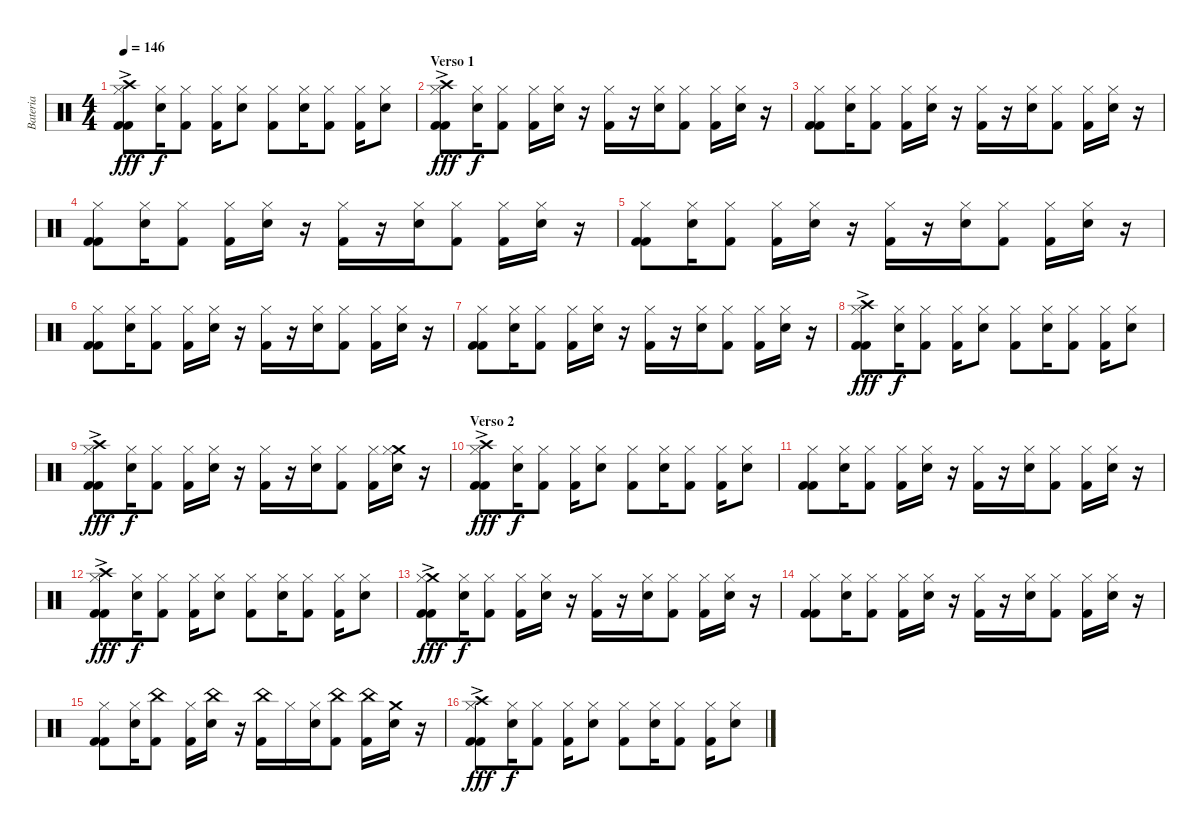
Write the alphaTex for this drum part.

\track ("Bateria" "Bateria") {instrument percussion}
\staff {score}
\articulation defaults
\ts (4 4)
\tempo 146
\clef neutral
\ks c
("Crash high (hit)"{ac} "Hi-Hat (closed)" "Kick (hit) 2" "Kick (hit) 2").8{dy fff} ("Hi-Hat (closed)" "Electric Snare (hit)").16{dy f} ("Hi-Hat (closed)" "Kick (hit) 2").8 ("Hi-Hat (closed)" "Kick (hit) 2").16 ("Hi-Hat (closed)" "Electric Snare (hit)").8 ("Hi-Hat (closed)" "Kick (hit) 2").8 ("Hi-Hat (closed)" "Electric Snare (hit)").16 ("Hi-Hat (closed)" "Kick (hit) 2").8 ("Hi-Hat (closed)" "Kick (hit) 2").16 ("Hi-Hat (closed)" "Electric Snare (hit)").8 |
\section ("" "Verso 1")
("Crash high (hit)"{ac} "Hi-Hat (closed)" "Kick (hit) 2" "Kick (hit) 2").8{dy fff} ("Hi-Hat (closed)" "Electric Snare (hit)").16{dy f} ("Hi-Hat (closed)" "Kick (hit) 2").8 ("Hi-Hat (closed)" "Kick (hit) 2").16 ("Hi-Hat (closed)" "Electric Snare (hit)").16 r.16 ("Hi-Hat (closed)" "Kick (hit) 2").16 r.16 ("Hi-Hat (closed)" "Electric Snare (hit)").16 ("Hi-Hat (closed)" "Kick (hit) 2").8 ("Hi-Hat (closed)" "Kick (hit) 2").16 ("Hi-Hat (closed)" "Electric Snare (hit)").16 r.16 |
("Hi-Hat (closed)" "Kick (hit) 2" "Kick (hit) 2").8 ("Hi-Hat (closed)" "Electric Snare (hit)").16 ("Hi-Hat (closed)" "Kick (hit) 2").8 ("Hi-Hat (closed)" "Kick (hit) 2").16 ("Hi-Hat (closed)" "Electric Snare (hit)").16 r.16 ("Hi-Hat (closed)" "Kick (hit) 2").16 r.16 ("Hi-Hat (closed)" "Electric Snare (hit)").16 ("Hi-Hat (closed)" "Kick (hit) 2").8 ("Hi-Hat (closed)" "Kick (hit) 2").16 ("Hi-Hat (closed)" "Electric Snare (hit)").16 r.16 |
("Hi-Hat (closed)" "Kick (hit) 2" "Kick (hit) 2").8 ("Hi-Hat (closed)" "Electric Snare (hit)").16 ("Hi-Hat (closed)" "Kick (hit) 2").8 ("Hi-Hat (closed)" "Kick (hit) 2").16 ("Hi-Hat (closed)" "Electric Snare (hit)").16 r.16 ("Hi-Hat (closed)" "Kick (hit) 2").16 r.16 ("Hi-Hat (closed)" "Electric Snare (hit)").16 ("Hi-Hat (closed)" "Kick (hit) 2").8 ("Hi-Hat (closed)" "Kick (hit) 2").16 ("Hi-Hat (closed)" "Electric Snare (hit)").16 r.16 |
("Hi-Hat (closed)" "Kick (hit) 2" "Kick (hit) 2").8 ("Hi-Hat (closed)" "Electric Snare (hit)").16 ("Hi-Hat (closed)" "Kick (hit) 2").8 ("Hi-Hat (closed)" "Kick (hit) 2").16 ("Hi-Hat (closed)" "Electric Snare (hit)").16 r.16 ("Hi-Hat (closed)" "Kick (hit) 2").16 r.16 ("Hi-Hat (closed)" "Electric Snare (hit)").16 ("Hi-Hat (closed)" "Kick (hit) 2").8 ("Hi-Hat (closed)" "Kick (hit) 2").16 ("Hi-Hat (closed)" "Electric Snare (hit)").16 r.16 |
("Hi-Hat (closed)" "Kick (hit) 2" "Kick (hit) 2").8 ("Hi-Hat (closed)" "Electric Snare (hit)").16 ("Hi-Hat (closed)" "Kick (hit) 2").8 ("Hi-Hat (closed)" "Kick (hit) 2").16 ("Hi-Hat (closed)" "Electric Snare (hit)").16 r.16 ("Hi-Hat (closed)" "Kick (hit) 2").16 r.16 ("Hi-Hat (closed)" "Electric Snare (hit)").16 ("Hi-Hat (closed)" "Kick (hit) 2").8 ("Hi-Hat (closed)" "Kick (hit) 2").16 ("Hi-Hat (closed)" "Electric Snare (hit)").16 r.16 |
("Hi-Hat (closed)" "Kick (hit) 2" "Kick (hit) 2").8 ("Hi-Hat (closed)" "Electric Snare (hit)").16 ("Hi-Hat (closed)" "Kick (hit) 2").8 ("Hi-Hat (closed)" "Kick (hit) 2").16 ("Hi-Hat (closed)" "Electric Snare (hit)").16 r.16 ("Hi-Hat (closed)" "Kick (hit) 2").16 r.16 ("Hi-Hat (closed)" "Electric Snare (hit)").16 ("Hi-Hat (closed)" "Kick (hit) 2").8 ("Hi-Hat (closed)" "Kick (hit) 2").16 ("Hi-Hat (closed)" "Electric Snare (hit)").16 r.16 |
("Crash high (hit)"{ac} "Hi-Hat (closed)" "Kick (hit) 2" "Kick (hit) 2").8{dy fff} ("Hi-Hat (closed)" "Electric Snare (hit)").16{dy f} ("Hi-Hat (closed)" "Kick (hit) 2").8 ("Hi-Hat (closed)" "Kick (hit) 2").16 ("Hi-Hat (closed)" "Electric Snare (hit)").8 ("Hi-Hat (closed)" "Kick (hit) 2").8 ("Hi-Hat (closed)" "Electric Snare (hit)").16 ("Hi-Hat (closed)" "Kick (hit) 2").8 ("Hi-Hat (closed)" "Kick (hit) 2").16 ("Hi-Hat (closed)" "Electric Snare (hit)").8 |
("Crash high (hit)"{ac} "Hi-Hat (closed)" "Kick (hit) 2" "Kick (hit) 2").8{dy fff} ("Hi-Hat (closed)" "Electric Snare (hit)").16{dy f} ("Hi-Hat (closed)" "Kick (hit) 2").8 ("Hi-Hat (closed)" "Kick (hit) 2").16 ("Hi-Hat (closed)" "Electric Snare (hit)").16 r.16 ("Hi-Hat (closed)" "Kick (hit) 2").16 r.16 ("Hi-Hat (closed)" "Electric Snare (hit)").16 ("Hi-Hat (closed)" "Kick (hit) 2").8 ("Hi-Hat (closed)" "Kick (hit) 2").16 ("Crash medium (hit)" "Hi-Hat (closed)" "Electric Snare (hit)").16 r.16 |
\section ("" "Verso 2")
("Crash high (hit)"{ac} "Hi-Hat (closed)" "Kick (hit) 2" "Kick (hit) 2").8{dy fff} ("Hi-Hat (closed)" "Electric Snare (hit)").16{dy f} ("Hi-Hat (closed)" "Kick (hit) 2").8 ("Hi-Hat (closed)" "Kick (hit) 2").16 ("Hi-Hat (closed)" "Electric Snare (hit)").8 ("Hi-Hat (closed)" "Kick (hit) 2").8 ("Hi-Hat (closed)" "Electric Snare (hit)").16 ("Hi-Hat (closed)" "Kick (hit) 2").8 ("Hi-Hat (closed)" "Kick (hit) 2").16 ("Hi-Hat (closed)" "Electric Snare (hit)").8 |
("Hi-Hat (closed)" "Kick (hit) 2" "Kick (hit) 2").8 ("Hi-Hat (closed)" "Electric Snare (hit)").16 ("Hi-Hat (closed)" "Kick (hit) 2").8 ("Hi-Hat (closed)" "Kick (hit) 2").16 ("Hi-Hat (closed)" "Electric Snare (hit)").16 r.16 ("Hi-Hat (closed)" "Kick (hit) 2").16 r.16 ("Hi-Hat (closed)" "Electric Snare (hit)").16 ("Hi-Hat (closed)" "Kick (hit) 2").8 ("Hi-Hat (closed)" "Kick (hit) 2").16 ("Hi-Hat (closed)" "Electric Snare (hit)").16 r.16 |
("Crash high (hit)"{ac} "Hi-Hat (closed)" "Kick (hit) 2" "Kick (hit) 2").8{dy fff} ("Hi-Hat (closed)" "Electric Snare (hit)").16{dy f} ("Hi-Hat (closed)" "Kick (hit) 2").8 ("Hi-Hat (closed)" "Kick (hit) 2").16 ("Hi-Hat (closed)" "Electric Snare (hit)").8 ("Hi-Hat (closed)" "Kick (hit) 2").8 ("Hi-Hat (closed)" "Electric Snare (hit)").16 ("Hi-Hat (closed)" "Kick (hit) 2").8 ("Hi-Hat (closed)" "Kick (hit) 2").16 ("Hi-Hat (closed)" "Electric Snare (hit)").8 |
("Crash medium (hit)"{ac} "Hi-Hat (closed)" "Kick (hit) 2" "Kick (hit) 2").8{dy fff} ("Hi-Hat (closed)" "Electric Snare (hit)").16{dy f} ("Hi-Hat (closed)" "Kick (hit) 2").8 ("Hi-Hat (closed)" "Kick (hit) 2").16 ("Hi-Hat (closed)" "Electric Snare (hit)").16 r.16 ("Hi-Hat (closed)" "Kick (hit) 2").16 r.16 ("Hi-Hat (closed)" "Electric Snare (hit)").16 ("Hi-Hat (closed)" "Kick (hit) 2").8 ("Hi-Hat (closed)" "Kick (hit) 2").16 ("Hi-Hat (closed)" "Electric Snare (hit)").16 r.16 |
("Hi-Hat (closed)" "Kick (hit) 2" "Kick (hit) 2").8 ("Hi-Hat (closed)" "Electric Snare (hit)").16 ("Hi-Hat (closed)" "Kick (hit) 2").8 ("Hi-Hat (closed)" "Kick (hit) 2").16 ("Hi-Hat (closed)" "Electric Snare (hit)").16 r.16 ("Hi-Hat (closed)" "Kick (hit) 2").16 r.16 ("Hi-Hat (closed)" "Electric Snare (hit)").16 ("Hi-Hat (closed)" "Kick (hit) 2").8 ("Hi-Hat (closed)" "Kick (hit) 2").16 ("Hi-Hat (closed)" "Electric Snare (hit)").16 r.16 |
("Hi-Hat (closed)" "Kick (hit) 2" "Kick (hit) 2").8 ("Hi-Hat (closed)" "Electric Snare (hit)").16 ("China (hit)" "Kick (hit) 2").8 ("Hi-Hat (closed)" "Kick (hit) 2").16 ("China (hit)" "Electric Snare (hit)").16 r.16 ("China (hit)" "Kick (hit) 2").16 "Hi-Hat (closed)".16 ("Hi-Hat (closed)" "Electric Snare (hit)").16 ("China (hit)" "Kick (hit) 2").8 ("China (hit)" "Kick (hit) 2").16 ("Crash medium (hit)" "Electric Snare (hit)").16 r.16 |
("Crash high (hit)"{ac} "Hi-Hat (closed)" "Kick (hit) 2" "Kick (hit) 2").8{dy fff} ("Hi-Hat (closed)" "Electric Snare (hit)").16{dy f} ("Hi-Hat (closed)" "Kick (hit) 2").8 ("Hi-Hat (closed)" "Kick (hit) 2").16 ("Hi-Hat (closed)" "Electric Snare (hit)").8 ("Hi-Hat (closed)" "Kick (hit) 2").8 ("Hi-Hat (closed)" "Electric Snare (hit)").16 ("Hi-Hat (closed)" "Kick (hit) 2").8 ("Hi-Hat (closed)" "Kick (hit) 2").16 ("Hi-Hat (closed)" "Electric Snare (hit)").8
